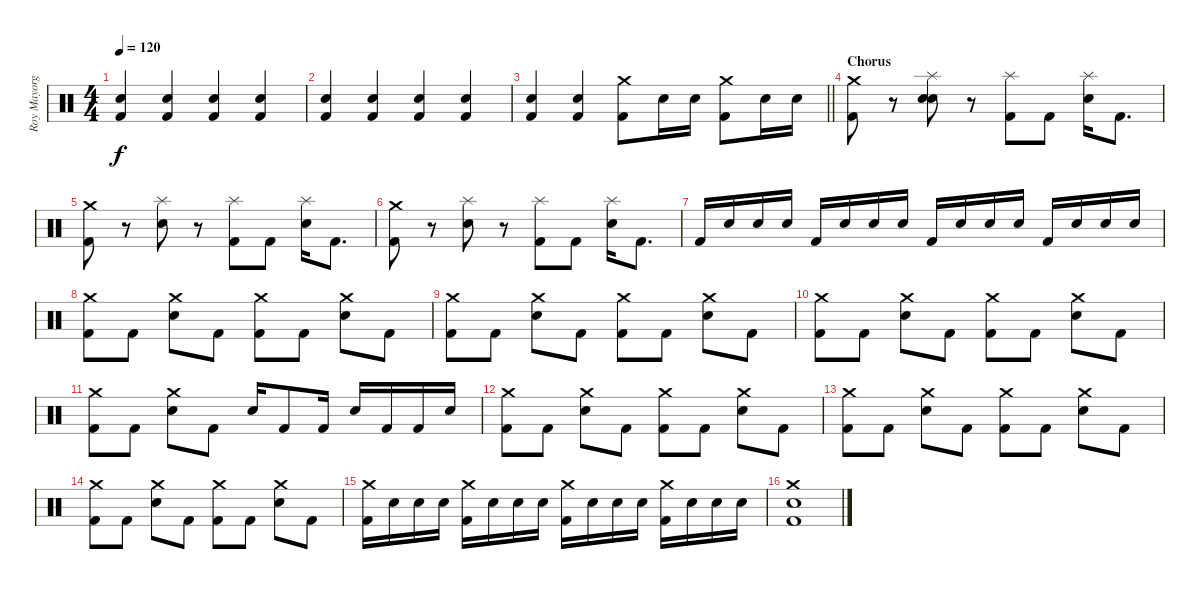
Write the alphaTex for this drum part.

\track ("Roy Mayorga" "Roy Mayorg") {instrument percussion}
\staff {score}
\articulation defaults
\ts (4 4)
\tempo 120
\clef neutral
\ks c
("Electric Snare (hit)" "Kick (hit) 2").4{dy f} ("Electric Snare (hit)" "Kick (hit) 2").4 ("Electric Snare (hit)" "Kick (hit) 2").4 ("Electric Snare (hit)" "Kick (hit) 2").4 |
("Electric Snare (hit)" "Kick (hit) 2").4 ("Electric Snare (hit)" "Kick (hit) 2").4 ("Electric Snare (hit)" "Kick (hit) 2").4 ("Electric Snare (hit)" "Kick (hit) 2").4 |
\barLineRight lightlight
("Electric Snare (hit)" "Kick (hit) 2").4 ("Electric Snare (hit)" "Kick (hit) 2").4 ("Crash medium (hit)" "Kick (hit) 2").8 "Electric Snare (hit)".16 "Electric Snare (hit)".16 ("Crash medium (hit)" "Kick (hit) 2").8 "Electric Snare (hit)".16 "Electric Snare (hit)".16 |
\section ("" "Chorus")
("Crash medium (hit)" "Kick (hit) 2").8 r.8 ("Splash (hit)" "Electric Snare (hit)" "Electric Snare (hit)").8 r.8 ("Splash (hit)" "Kick (hit) 2").8 "Kick (hit) 2".8 ("Splash (hit)" "Electric Snare (hit)").16 "Kick (hit) 2".8{d} |
("Crash medium (hit)" "Kick (hit) 2").8 r.8 ("Splash (hit)" "Electric Snare (hit)").8 r.8 ("Splash (hit)" "Kick (hit) 2").8 "Kick (hit) 2".8 ("Splash (hit)" "Electric Snare (hit)").16 "Kick (hit) 2".8{d} |
("Crash medium (hit)" "Kick (hit) 2").8 r.8 ("Splash (hit)" "Electric Snare (hit)").8 r.8 ("Splash (hit)" "Kick (hit) 2").8 "Kick (hit) 2".8 ("Splash (hit)" "Electric Snare (hit)").16 "Kick (hit) 2".8{d} |
"Kick (hit) 2".16 "Electric Snare (hit)".16 "Electric Snare (hit)".16 "Electric Snare (hit)".16 "Kick (hit) 2".16 "Electric Snare (hit)".16 "Electric Snare (hit)".16 "Electric Snare (hit)".16 "Kick (hit) 2".16 "Electric Snare (hit)".16 "Electric Snare (hit)".16 "Electric Snare (hit)".16 "Kick (hit) 2".16 "Electric Snare (hit)".16 "Electric Snare (hit)".16 "Electric Snare (hit)".16 |
("Crash medium (hit)" "Kick (hit) 2").8 "Kick (hit) 2".8 ("Crash medium (hit)" "Electric Snare (hit)").8 "Kick (hit) 2".8 ("Crash medium (hit)" "Kick (hit) 2").8 "Kick (hit) 2".8 ("Crash medium (hit)" "Electric Snare (hit)").8 "Kick (hit) 2".8 |
("Crash medium (hit)" "Kick (hit) 2").8 "Kick (hit) 2".8 ("Crash medium (hit)" "Electric Snare (hit)").8 "Kick (hit) 2".8 ("Crash medium (hit)" "Kick (hit) 2").8 "Kick (hit) 2".8 ("Crash medium (hit)" "Electric Snare (hit)").8 "Kick (hit) 2".8 |
("Crash medium (hit)" "Kick (hit) 2").8 "Kick (hit) 2".8 ("Crash medium (hit)" "Electric Snare (hit)").8 "Kick (hit) 2".8 ("Crash medium (hit)" "Kick (hit) 2").8 "Kick (hit) 2".8 ("Crash medium (hit)" "Electric Snare (hit)").8 "Kick (hit) 2".8 |
("Crash medium (hit)" "Kick (hit) 2").8 "Kick (hit) 2".8 ("Crash medium (hit)" "Electric Snare (hit)").8 "Kick (hit) 2".8 "Electric Snare (hit)".16 "Kick (hit) 2".8 "Kick (hit) 2".16 "Electric Snare (hit)".16 "Kick (hit) 2".16 "Kick (hit) 2".16 "Electric Snare (hit)".16 |
("Crash medium (hit)" "Kick (hit) 2").8 "Kick (hit) 2".8 ("Crash medium (hit)" "Electric Snare (hit)").8 "Kick (hit) 2".8 ("Crash medium (hit)" "Kick (hit) 2").8 "Kick (hit) 2".8 ("Crash medium (hit)" "Electric Snare (hit)").8 "Kick (hit) 2".8 |
("Crash medium (hit)" "Kick (hit) 2").8 "Kick (hit) 2".8 ("Crash medium (hit)" "Electric Snare (hit)").8 "Kick (hit) 2".8 ("Crash medium (hit)" "Kick (hit) 2").8 "Kick (hit) 2".8 ("Crash medium (hit)" "Electric Snare (hit)").8 "Kick (hit) 2".8 |
("Crash medium (hit)" "Kick (hit) 2").8 "Kick (hit) 2".8 ("Crash medium (hit)" "Electric Snare (hit)").8 "Kick (hit) 2".8 ("Crash medium (hit)" "Kick (hit) 2").8 "Kick (hit) 2".8 ("Crash medium (hit)" "Electric Snare (hit)").8 "Kick (hit) 2".8 |
("Crash medium (hit)" "Kick (hit) 2").16 "Electric Snare (hit)".16 "Electric Snare (hit)".16 "Electric Snare (hit)".16 ("Crash medium (hit)" "Kick (hit) 2").16 "Electric Snare (hit)".16 "Electric Snare (hit)".16 "Electric Snare (hit)".16 ("Crash medium (hit)" "Kick (hit) 2").16 "Electric Snare (hit)".16 "Electric Snare (hit)".16 "Electric Snare (hit)".16 ("Crash medium (hit)" "Kick (hit) 2").16 "Electric Snare (hit)".16 "Electric Snare (hit)".16 "Electric Snare (hit)".16 |
("Crash medium (hit)" "Electric Snare (hit)" "Kick (hit) 2").1
